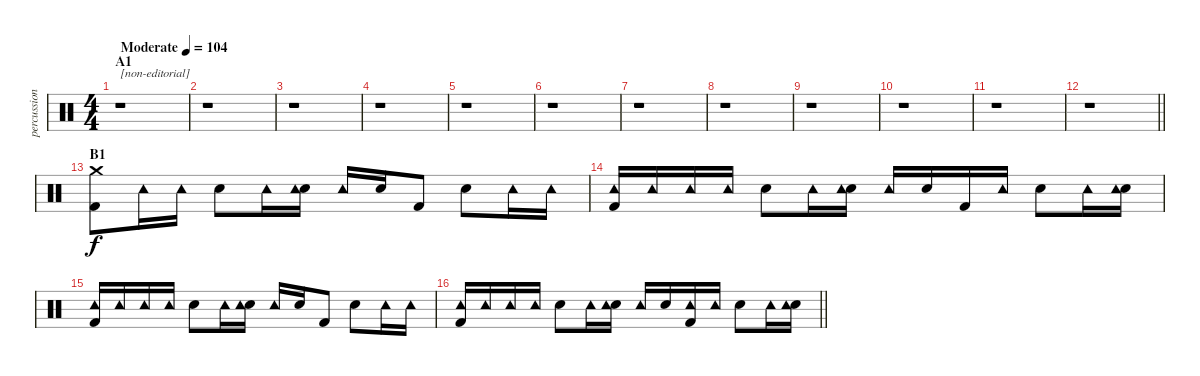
\track ("percussion" "percussion") {instrument percussion}
\staff {score}
\articulation defaults
\ts (4 4)
\section ("" "A1")
\tempo (104 "Moderate")
\clef neutral
\ks c
r.1{txt "[non-editorial]" dy f} |
r.1 |
r.1 |
r.1 |
r.1 |
r.1 |
r.1 |
r.1 |
r.1 |
r.1 |
r.1 |
\barLineRight lightlight
r.1 |
\section ("" "B1")
("Crash medium (hit)" "Kick (hit) 2").8 "Tambourine (hit)".16 "Tambourine (hit)".16 "Snare (hit) 2".8 "Tambourine (hit)".16 ("Snare (hit) 2" "Tambourine (hit)").16 "Tambourine (hit)".16 "Snare (hit) 2".16 "Kick (hit) 2".8 "Snare (hit) 2".8 "Tambourine (hit)".16 "Tambourine (hit)".16 |
("Tambourine (hit)" "Kick (hit) 2").16 "Tambourine (hit)".16 "Tambourine (hit)".16 "Tambourine (hit)".16 "Snare (hit) 2".8 "Tambourine (hit)".16 ("Snare (hit) 2" "Tambourine (hit)").16 "Tambourine (hit)".16 "Snare (hit) 2".16 "Kick (hit) 2".16 "Tambourine (hit)".16 "Snare (hit) 2".8 "Tambourine (hit)".16 ("Snare (hit) 2" "Tambourine (hit)").16 |
("Tambourine (hit)" "Kick (hit) 2").16 "Tambourine (hit)".16 "Tambourine (hit)".16 "Tambourine (hit)".16 "Snare (hit) 2".8 "Tambourine (hit)".16 ("Snare (hit) 2" "Tambourine (hit)").16 "Tambourine (hit)".16 "Snare (hit) 2".16 "Kick (hit) 2".8 "Snare (hit) 2".8 "Tambourine (hit)".16 "Tambourine (hit)".16 |
\barLineRight lightlight
("Tambourine (hit)" "Kick (hit) 2").16 "Tambourine (hit)".16 "Tambourine (hit)".16 "Tambourine (hit)".16 "Snare (hit) 2".8 "Tambourine (hit)".16 ("Snare (hit) 2" "Tambourine (hit)").16 "Tambourine (hit)".16 "Snare (hit) 2".16 ("Tambourine (hit)" "Kick (hit) 2").16 "Tambourine (hit)".16 "Snare (hit) 2".8 "Tambourine (hit)".16 ("Snare (hit) 2" "Tambourine (hit)").16
